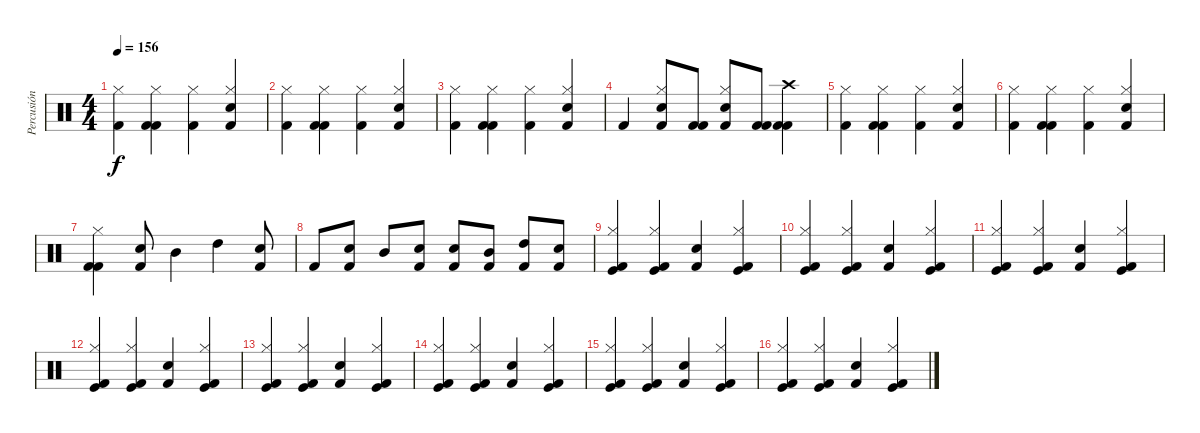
\track ("Percusión" "Percusión") {instrument percussion}
\staff {score}
\articulation defaults
\ts (4 4)
\tempo 156
\clef neutral
\ks c
("Kick (hit) 2" "Hi-Hat (closed)").4{dy f} ("Kick (hit) 2" "Kick (hit) 2" "Hi-Hat (closed)").4 ("Kick (hit) 2" "Hi-Hat (closed)").4 ("Kick (hit) 2" "Snare (hit) 2" "Hi-Hat (closed)").4 |
("Kick (hit) 2" "Hi-Hat (closed)").4 ("Kick (hit) 2" "Kick (hit) 2" "Hi-Hat (closed)").4 ("Kick (hit) 2" "Hi-Hat (closed)").4 ("Kick (hit) 2" "Snare (hit) 2" "Hi-Hat (closed)").4 |
("Kick (hit) 2" "Hi-Hat (closed)").4 ("Kick (hit) 2" "Kick (hit) 2" "Hi-Hat (closed)").4 ("Kick (hit) 2" "Hi-Hat (closed)").4 ("Kick (hit) 2" "Snare (hit) 2" "Hi-Hat (closed)").4 |
"Kick (hit) 2".4 ("Kick (hit) 2" "Hi-Hat (closed)" "Snare (hit) 2").8 ("Kick (hit) 2" "Kick (hit) 2").8 ("Kick (hit) 2" "Hi-Hat (closed)" "Snare (hit) 2").8 ("Kick (hit) 2" "Kick (hit) 2").8 ("Kick (hit) 2" "Kick (hit) 2" "Crash high (hit)").4 |
("Kick (hit) 2" "Hi-Hat (closed)").4 ("Kick (hit) 2" "Kick (hit) 2" "Hi-Hat (closed)").4 ("Kick (hit) 2" "Hi-Hat (closed)").4 ("Kick (hit) 2" "Snare (hit) 2" "Hi-Hat (closed)").4 |
("Kick (hit) 2" "Hi-Hat (closed)").4 ("Kick (hit) 2" "Kick (hit) 2" "Hi-Hat (closed)").4 ("Kick (hit) 2" "Hi-Hat (closed)").4 ("Kick (hit) 2" "Snare (hit) 2" "Hi-Hat (closed)").4 |
("Kick (hit) 2" "Kick (hit) 2" "Hi-Hat (closed)").4 ("Kick (hit) 2" "Snare (hit) 2").8 "Mid Tom (hit)".4 "High Tom (hit)".4 ("Kick (hit) 2" "Snare (hit) 2").8 |
"Kick (hit) 2".8 ("Kick (hit) 2" "Snare (hit) 2").8 "Mid Tom (hit)".8 ("Kick (hit) 2" "Snare (hit) 2").8 ("Kick (hit) 2" "Snare (hit) 2").8 ("Kick (hit) 2" "Mid Tom (hit)").8 ("Kick (hit) 2" "High Tom (hit)").8 ("Kick (hit) 2" "Snare (hit) 2").8 |
("Kick (hit) 2" "Kick (hit)" "Hi-Hat (closed)").4 ("Kick (hit) 2" "Kick (hit)" "Hi-Hat (closed)").4 ("Kick (hit) 2" "Snare (hit) 2").4 ("Kick (hit) 2" "Kick (hit)" "Hi-Hat (closed)").4 |
("Kick (hit) 2" "Kick (hit)" "Hi-Hat (closed)").4 ("Kick (hit) 2" "Kick (hit)" "Hi-Hat (closed)").4 ("Kick (hit) 2" "Snare (hit) 2").4 ("Kick (hit) 2" "Kick (hit)" "Hi-Hat (closed)").4 |
("Kick (hit) 2" "Kick (hit)" "Hi-Hat (closed)").4 ("Kick (hit) 2" "Kick (hit)" "Hi-Hat (closed)").4 ("Kick (hit) 2" "Snare (hit) 2").4 ("Kick (hit) 2" "Kick (hit)" "Hi-Hat (closed)").4 |
("Kick (hit) 2" "Kick (hit)" "Hi-Hat (closed)").4 ("Kick (hit) 2" "Kick (hit)" "Hi-Hat (closed)").4 ("Kick (hit) 2" "Snare (hit) 2").4 ("Kick (hit) 2" "Kick (hit)" "Hi-Hat (closed)").4 |
("Kick (hit) 2" "Kick (hit)" "Hi-Hat (closed)").4 ("Kick (hit) 2" "Kick (hit)" "Hi-Hat (closed)").4 ("Kick (hit) 2" "Snare (hit) 2").4 ("Kick (hit) 2" "Kick (hit)" "Hi-Hat (closed)").4 |
("Kick (hit) 2" "Kick (hit)" "Hi-Hat (closed)").4 ("Kick (hit) 2" "Kick (hit)" "Hi-Hat (closed)").4 ("Kick (hit) 2" "Snare (hit) 2").4 ("Kick (hit) 2" "Kick (hit)" "Hi-Hat (closed)").4 |
("Kick (hit) 2" "Kick (hit)" "Hi-Hat (closed)").4 ("Kick (hit) 2" "Kick (hit)" "Hi-Hat (closed)").4 ("Kick (hit) 2" "Snare (hit) 2").4 ("Kick (hit) 2" "Kick (hit)" "Hi-Hat (closed)").4 |
("Kick (hit) 2" "Kick (hit)" "Hi-Hat (closed)").4 ("Kick (hit) 2" "Kick (hit)" "Hi-Hat (closed)").4 ("Kick (hit) 2" "Snare (hit) 2").4 ("Kick (hit) 2" "Kick (hit)" "Hi-Hat (closed)").4
